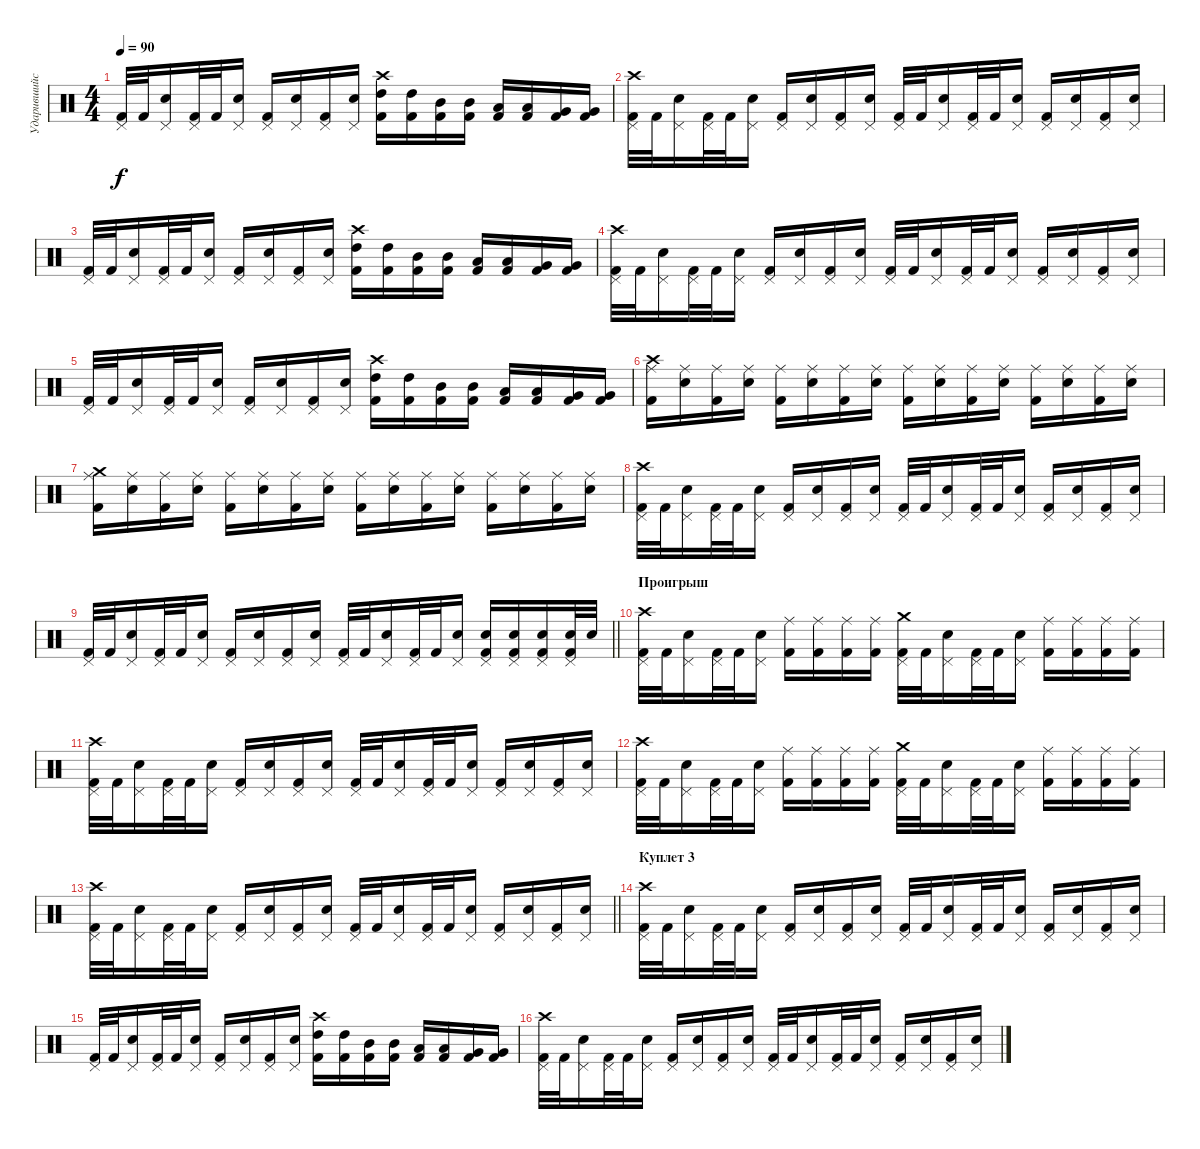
\track ("Ударившийся" "Ударившийс") {instrument percussion}
\staff {score}
\articulation defaults
\ts (4 4)
\tempo 90
\clef neutral
\ks c
("Kick (hit) 2" "Pedal Hi-Hat (hit)").32{dy f} "Kick (hit) 2".32 ("Snare (hit) 2" "Pedal Hi-Hat (hit)").16 ("Kick (hit) 2" "Pedal Hi-Hat (hit)").32 "Kick (hit) 2".32 ("Snare (hit) 2" "Pedal Hi-Hat (hit)").16 ("Kick (hit) 2" "Pedal Hi-Hat (hit)").16 ("Snare (hit) 2" "Pedal Hi-Hat (hit)").16 ("Kick (hit) 2" "Pedal Hi-Hat (hit)").16 ("Snare (hit) 2" "Pedal Hi-Hat (hit)").16 ("High Tom (hit)" "Kick (hit) 2" "Crash high (hit)").16 ("High Tom (hit)" "Kick (hit) 2").16 ("Mid Tom (hit)" "Kick (hit) 2").16 ("Mid Tom (hit)" "Kick (hit) 2").16 ("Low Tom (hit)" "Kick (hit) 2").16 ("Low Tom (hit)" "Kick (hit) 2").16 ("Very Low Tom (hit)" "Kick (hit) 2").16 ("Very Low Tom (hit)" "Kick (hit) 2").16 |
("Kick (hit) 2" "Crash high (hit)" "Pedal Hi-Hat (hit)").32 "Kick (hit) 2".32 ("Snare (hit) 2" "Pedal Hi-Hat (hit)").16 ("Kick (hit) 2" "Pedal Hi-Hat (hit)").32 "Kick (hit) 2".32 ("Snare (hit) 2" "Pedal Hi-Hat (hit)").16 ("Kick (hit) 2" "Pedal Hi-Hat (hit)").16 ("Snare (hit) 2" "Pedal Hi-Hat (hit)").16 ("Kick (hit) 2" "Pedal Hi-Hat (hit)").16 ("Snare (hit) 2" "Pedal Hi-Hat (hit)").16 ("Kick (hit) 2" "Pedal Hi-Hat (hit)").32 "Kick (hit) 2".32 ("Snare (hit) 2" "Pedal Hi-Hat (hit)").16 ("Kick (hit) 2" "Pedal Hi-Hat (hit)").32 "Kick (hit) 2".32 ("Snare (hit) 2" "Pedal Hi-Hat (hit)").16 ("Kick (hit) 2" "Pedal Hi-Hat (hit)").16 ("Snare (hit) 2" "Pedal Hi-Hat (hit)").16 ("Kick (hit) 2" "Pedal Hi-Hat (hit)").16 ("Snare (hit) 2" "Pedal Hi-Hat (hit)").16 |
("Kick (hit) 2" "Pedal Hi-Hat (hit)").32 "Kick (hit) 2".32 ("Snare (hit) 2" "Pedal Hi-Hat (hit)").16 ("Kick (hit) 2" "Pedal Hi-Hat (hit)").32 "Kick (hit) 2".32 ("Snare (hit) 2" "Pedal Hi-Hat (hit)").16 ("Kick (hit) 2" "Pedal Hi-Hat (hit)").16 ("Snare (hit) 2" "Pedal Hi-Hat (hit)").16 ("Kick (hit) 2" "Pedal Hi-Hat (hit)").16 ("Snare (hit) 2" "Pedal Hi-Hat (hit)").16 ("High Tom (hit)" "Kick (hit) 2" "Crash high (hit)").16 ("High Tom (hit)" "Kick (hit) 2").16 ("Mid Tom (hit)" "Kick (hit) 2").16 ("Mid Tom (hit)" "Kick (hit) 2").16 ("Low Tom (hit)" "Kick (hit) 2").16 ("Low Tom (hit)" "Kick (hit) 2").16 ("Very Low Tom (hit)" "Kick (hit) 2").16 ("Very Low Tom (hit)" "Kick (hit) 2").16 |
("Kick (hit) 2" "Crash high (hit)" "Pedal Hi-Hat (hit)").32 "Kick (hit) 2".32 ("Snare (hit) 2" "Pedal Hi-Hat (hit)").16 ("Kick (hit) 2" "Pedal Hi-Hat (hit)").32 "Kick (hit) 2".32 ("Snare (hit) 2" "Pedal Hi-Hat (hit)").16 ("Kick (hit) 2" "Pedal Hi-Hat (hit)").16 ("Snare (hit) 2" "Pedal Hi-Hat (hit)").16 ("Kick (hit) 2" "Pedal Hi-Hat (hit)").16 ("Snare (hit) 2" "Pedal Hi-Hat (hit)").16 ("Kick (hit) 2" "Pedal Hi-Hat (hit)").32 "Kick (hit) 2".32 ("Snare (hit) 2" "Pedal Hi-Hat (hit)").16 ("Kick (hit) 2" "Pedal Hi-Hat (hit)").32 "Kick (hit) 2".32 ("Snare (hit) 2" "Pedal Hi-Hat (hit)").16 ("Kick (hit) 2" "Pedal Hi-Hat (hit)").16 ("Snare (hit) 2" "Pedal Hi-Hat (hit)").16 ("Kick (hit) 2" "Pedal Hi-Hat (hit)").16 ("Snare (hit) 2" "Pedal Hi-Hat (hit)").16 |
("Kick (hit) 2" "Pedal Hi-Hat (hit)").32 "Kick (hit) 2".32 ("Snare (hit) 2" "Pedal Hi-Hat (hit)").16 ("Kick (hit) 2" "Pedal Hi-Hat (hit)").32 "Kick (hit) 2".32 ("Snare (hit) 2" "Pedal Hi-Hat (hit)").16 ("Kick (hit) 2" "Pedal Hi-Hat (hit)").16 ("Snare (hit) 2" "Pedal Hi-Hat (hit)").16 ("Kick (hit) 2" "Pedal Hi-Hat (hit)").16 ("Snare (hit) 2" "Pedal Hi-Hat (hit)").16 ("High Tom (hit)" "Kick (hit) 2" "Crash high (hit)").16 ("High Tom (hit)" "Kick (hit) 2").16 ("Mid Tom (hit)" "Kick (hit) 2").16 ("Mid Tom (hit)" "Kick (hit) 2").16 ("Low Tom (hit)" "Kick (hit) 2").16 ("Low Tom (hit)" "Kick (hit) 2").16 ("Very Low Tom (hit)" "Kick (hit) 2").16 ("Very Low Tom (hit)" "Kick (hit) 2").16 |
("Kick (hit) 2" "Ride (middle)" "Crash high (hit)").16 ("Snare (hit) 2" "Ride (middle)").16 ("Kick (hit) 2" "Ride (middle)").16 ("Snare (hit) 2" "Ride (middle)").16 ("Kick (hit) 2" "Ride (middle)").16 ("Snare (hit) 2" "Ride (middle)").16 ("Kick (hit) 2" "Ride (middle)").16 ("Snare (hit) 2" "Ride (middle)").16 ("Kick (hit) 2" "Ride (middle)").16 ("Snare (hit) 2" "Ride (middle)").16 ("Kick (hit) 2" "Ride (middle)").16 ("Snare (hit) 2" "Ride (middle)").16 ("Kick (hit) 2" "Ride (middle)").16 ("Snare (hit) 2" "Ride (middle)").16 ("Kick (hit) 2" "Ride (middle)").16 ("Snare (hit) 2" "Ride (middle)").16 |
("Kick (hit) 2" "Ride (middle)" "Crash medium (hit)").16 ("Snare (hit) 2" "Ride (middle)").16 ("Kick (hit) 2" "Ride (middle)").16 ("Snare (hit) 2" "Ride (middle)").16 ("Kick (hit) 2" "Ride (middle)").16 ("Snare (hit) 2" "Ride (middle)").16 ("Kick (hit) 2" "Ride (middle)").16 ("Snare (hit) 2" "Ride (middle)").16 ("Kick (hit) 2" "Ride (middle)").16 ("Snare (hit) 2" "Ride (middle)").16 ("Kick (hit) 2" "Ride (middle)").16 ("Snare (hit) 2" "Ride (middle)").16 ("Kick (hit) 2" "Ride (middle)").16 ("Snare (hit) 2" "Ride (middle)").16 ("Kick (hit) 2" "Ride (middle)").16 ("Snare (hit) 2" "Ride (middle)").16 |
("Kick (hit) 2" "Crash high (hit)" "Pedal Hi-Hat (hit)").32 "Kick (hit) 2".32 ("Snare (hit) 2" "Pedal Hi-Hat (hit)").16 ("Kick (hit) 2" "Pedal Hi-Hat (hit)").32 "Kick (hit) 2".32 ("Snare (hit) 2" "Pedal Hi-Hat (hit)").16 ("Kick (hit) 2" "Pedal Hi-Hat (hit)").16 ("Snare (hit) 2" "Pedal Hi-Hat (hit)").16 ("Kick (hit) 2" "Pedal Hi-Hat (hit)").16 ("Snare (hit) 2" "Pedal Hi-Hat (hit)").16 ("Kick (hit) 2" "Pedal Hi-Hat (hit)").32 "Kick (hit) 2".32 ("Snare (hit) 2" "Pedal Hi-Hat (hit)").16 ("Kick (hit) 2" "Pedal Hi-Hat (hit)").32 "Kick (hit) 2".32 ("Snare (hit) 2" "Pedal Hi-Hat (hit)").16 ("Kick (hit) 2" "Pedal Hi-Hat (hit)").16 ("Snare (hit) 2" "Pedal Hi-Hat (hit)").16 ("Kick (hit) 2" "Pedal Hi-Hat (hit)").16 ("Snare (hit) 2" "Pedal Hi-Hat (hit)").16 |
\barLineRight lightlight
("Kick (hit) 2" "Pedal Hi-Hat (hit)").32 "Kick (hit) 2".32 ("Snare (hit) 2" "Pedal Hi-Hat (hit)").16 ("Kick (hit) 2" "Pedal Hi-Hat (hit)").32 "Kick (hit) 2".32 ("Snare (hit) 2" "Pedal Hi-Hat (hit)").16 ("Kick (hit) 2" "Pedal Hi-Hat (hit)").16 ("Snare (hit) 2" "Pedal Hi-Hat (hit)").16 ("Kick (hit) 2" "Pedal Hi-Hat (hit)").16 ("Snare (hit) 2" "Pedal Hi-Hat (hit)").16 ("Kick (hit) 2" "Pedal Hi-Hat (hit)").32 "Kick (hit) 2".32 ("Snare (hit) 2" "Pedal Hi-Hat (hit)").16 ("Kick (hit) 2" "Pedal Hi-Hat (hit)").32 "Kick (hit) 2".32 ("Snare (hit) 2" "Pedal Hi-Hat (hit)").16 ("Snare (hit) 2" "Kick (hit) 2" "Pedal Hi-Hat (hit)").16 ("Snare (hit) 2" "Kick (hit) 2" "Pedal Hi-Hat (hit)").16 ("Snare (hit) 2" "Kick (hit) 2" "Pedal Hi-Hat (hit)").16 ("Snare (hit) 2" "Kick (hit) 2" "Pedal Hi-Hat (hit)").32 "Snare (hit) 2".32 |
\section ("" "Проигрыш")
("Kick (hit) 2" "Crash high (hit)" "Pedal Hi-Hat (hit)").32 "Kick (hit) 2".32 ("Snare (hit) 2" "Pedal Hi-Hat (hit)").16 ("Kick (hit) 2" "Pedal Hi-Hat (hit)").32 "Kick (hit) 2".32 ("Snare (hit) 2" "Pedal Hi-Hat (hit)").16 ("Kick (hit) 2" "Ride (middle)").16 ("Kick (hit) 2" "Ride (middle)").16 ("Kick (hit) 2" "Ride (middle)").16 ("Kick (hit) 2" "Ride (middle)").16 ("Kick (hit) 2" "Crash medium (hit)" "Pedal Hi-Hat (hit)").32 "Kick (hit) 2".32 ("Snare (hit) 2" "Pedal Hi-Hat (hit)").16 ("Kick (hit) 2" "Pedal Hi-Hat (hit)").32 "Kick (hit) 2".32 ("Snare (hit) 2" "Pedal Hi-Hat (hit)").16 ("Kick (hit) 2" "Ride (middle)").16 ("Kick (hit) 2" "Ride (middle)").16 ("Kick (hit) 2" "Ride (middle)").16 ("Kick (hit) 2" "Ride (middle)").16 |
("Kick (hit) 2" "Crash high (hit)" "Pedal Hi-Hat (hit)").32 "Kick (hit) 2".32 ("Snare (hit) 2" "Pedal Hi-Hat (hit)").16 ("Kick (hit) 2" "Pedal Hi-Hat (hit)").32 "Kick (hit) 2".32 ("Snare (hit) 2" "Pedal Hi-Hat (hit)").16 ("Kick (hit) 2" "Pedal Hi-Hat (hit)").16 ("Snare (hit) 2" "Pedal Hi-Hat (hit)").16 ("Kick (hit) 2" "Pedal Hi-Hat (hit)").16 ("Snare (hit) 2" "Pedal Hi-Hat (hit)").16 ("Kick (hit) 2" "Pedal Hi-Hat (hit)").32 "Kick (hit) 2".32 ("Snare (hit) 2" "Pedal Hi-Hat (hit)").16 ("Kick (hit) 2" "Pedal Hi-Hat (hit)").32 "Kick (hit) 2".32 ("Snare (hit) 2" "Pedal Hi-Hat (hit)").16 ("Kick (hit) 2" "Pedal Hi-Hat (hit)").16 ("Snare (hit) 2" "Pedal Hi-Hat (hit)").16 ("Kick (hit) 2" "Pedal Hi-Hat (hit)").16 ("Snare (hit) 2" "Pedal Hi-Hat (hit)").16 |
("Kick (hit) 2" "Crash high (hit)" "Pedal Hi-Hat (hit)").32 "Kick (hit) 2".32 ("Snare (hit) 2" "Pedal Hi-Hat (hit)").16 ("Kick (hit) 2" "Pedal Hi-Hat (hit)").32 "Kick (hit) 2".32 ("Snare (hit) 2" "Pedal Hi-Hat (hit)").16 ("Kick (hit) 2" "Ride (middle)").16 ("Kick (hit) 2" "Ride (middle)").16 ("Kick (hit) 2" "Ride (middle)").16 ("Kick (hit) 2" "Ride (middle)").16 ("Kick (hit) 2" "Crash medium (hit)" "Pedal Hi-Hat (hit)").32 "Kick (hit) 2".32 ("Snare (hit) 2" "Pedal Hi-Hat (hit)").16 ("Kick (hit) 2" "Pedal Hi-Hat (hit)").32 "Kick (hit) 2".32 ("Snare (hit) 2" "Pedal Hi-Hat (hit)").16 ("Kick (hit) 2" "Ride (middle)").16 ("Kick (hit) 2" "Ride (middle)").16 ("Kick (hit) 2" "Ride (middle)").16 ("Kick (hit) 2" "Ride (middle)").16 |
\barLineRight lightlight
("Kick (hit) 2" "Crash high (hit)" "Pedal Hi-Hat (hit)").32 "Kick (hit) 2".32 ("Snare (hit) 2" "Pedal Hi-Hat (hit)").16 ("Kick (hit) 2" "Pedal Hi-Hat (hit)").32 "Kick (hit) 2".32 ("Snare (hit) 2" "Pedal Hi-Hat (hit)").16 ("Kick (hit) 2" "Pedal Hi-Hat (hit)").16 ("Snare (hit) 2" "Pedal Hi-Hat (hit)").16 ("Kick (hit) 2" "Pedal Hi-Hat (hit)").16 ("Snare (hit) 2" "Pedal Hi-Hat (hit)").16 ("Kick (hit) 2" "Pedal Hi-Hat (hit)").32 "Kick (hit) 2".32 ("Snare (hit) 2" "Pedal Hi-Hat (hit)").16 ("Kick (hit) 2" "Pedal Hi-Hat (hit)").32 "Kick (hit) 2".32 ("Snare (hit) 2" "Pedal Hi-Hat (hit)").16 ("Kick (hit) 2" "Pedal Hi-Hat (hit)").16 ("Snare (hit) 2" "Pedal Hi-Hat (hit)").16 ("Kick (hit) 2" "Pedal Hi-Hat (hit)").16 ("Snare (hit) 2" "Pedal Hi-Hat (hit)").16 |
\section ("" "Куплет 3")
("Kick (hit) 2" "Crash high (hit)" "Pedal Hi-Hat (hit)").32 "Kick (hit) 2".32 ("Snare (hit) 2" "Pedal Hi-Hat (hit)").16 ("Kick (hit) 2" "Pedal Hi-Hat (hit)").32 "Kick (hit) 2".32 ("Snare (hit) 2" "Pedal Hi-Hat (hit)").16 ("Kick (hit) 2" "Pedal Hi-Hat (hit)").16 ("Snare (hit) 2" "Pedal Hi-Hat (hit)").16 ("Kick (hit) 2" "Pedal Hi-Hat (hit)").16 ("Snare (hit) 2" "Pedal Hi-Hat (hit)").16 ("Kick (hit) 2" "Pedal Hi-Hat (hit)").32 "Kick (hit) 2".32 ("Snare (hit) 2" "Pedal Hi-Hat (hit)").16 ("Kick (hit) 2" "Pedal Hi-Hat (hit)").32 "Kick (hit) 2".32 ("Snare (hit) 2" "Pedal Hi-Hat (hit)").16 ("Kick (hit) 2" "Pedal Hi-Hat (hit)").16 ("Snare (hit) 2" "Pedal Hi-Hat (hit)").16 ("Kick (hit) 2" "Pedal Hi-Hat (hit)").16 ("Snare (hit) 2" "Pedal Hi-Hat (hit)").16 |
("Kick (hit) 2" "Pedal Hi-Hat (hit)").32 "Kick (hit) 2".32 ("Snare (hit) 2" "Pedal Hi-Hat (hit)").16 ("Kick (hit) 2" "Pedal Hi-Hat (hit)").32 "Kick (hit) 2".32 ("Snare (hit) 2" "Pedal Hi-Hat (hit)").16 ("Kick (hit) 2" "Pedal Hi-Hat (hit)").16 ("Snare (hit) 2" "Pedal Hi-Hat (hit)").16 ("Kick (hit) 2" "Pedal Hi-Hat (hit)").16 ("Snare (hit) 2" "Pedal Hi-Hat (hit)").16 ("High Tom (hit)" "Kick (hit) 2" "Crash high (hit)").16 ("High Tom (hit)" "Kick (hit) 2").16 ("Mid Tom (hit)" "Kick (hit) 2").16 ("Mid Tom (hit)" "Kick (hit) 2").16 ("Low Tom (hit)" "Kick (hit) 2").16 ("Low Tom (hit)" "Kick (hit) 2").16 ("Very Low Tom (hit)" "Kick (hit) 2").16 ("Very Low Tom (hit)" "Kick (hit) 2").16 |
("Kick (hit) 2" "Crash high (hit)" "Pedal Hi-Hat (hit)").32 "Kick (hit) 2".32 ("Snare (hit) 2" "Pedal Hi-Hat (hit)").16 ("Kick (hit) 2" "Pedal Hi-Hat (hit)").32 "Kick (hit) 2".32 ("Snare (hit) 2" "Pedal Hi-Hat (hit)").16 ("Kick (hit) 2" "Pedal Hi-Hat (hit)").16 ("Snare (hit) 2" "Pedal Hi-Hat (hit)").16 ("Kick (hit) 2" "Pedal Hi-Hat (hit)").16 ("Snare (hit) 2" "Pedal Hi-Hat (hit)").16 ("Kick (hit) 2" "Pedal Hi-Hat (hit)").32 "Kick (hit) 2".32 ("Snare (hit) 2" "Pedal Hi-Hat (hit)").16 ("Kick (hit) 2" "Pedal Hi-Hat (hit)").32 "Kick (hit) 2".32 ("Snare (hit) 2" "Pedal Hi-Hat (hit)").16 ("Kick (hit) 2" "Pedal Hi-Hat (hit)").16 ("Snare (hit) 2" "Pedal Hi-Hat (hit)").16 ("Kick (hit) 2" "Pedal Hi-Hat (hit)").16 ("Snare (hit) 2" "Pedal Hi-Hat (hit)").16
